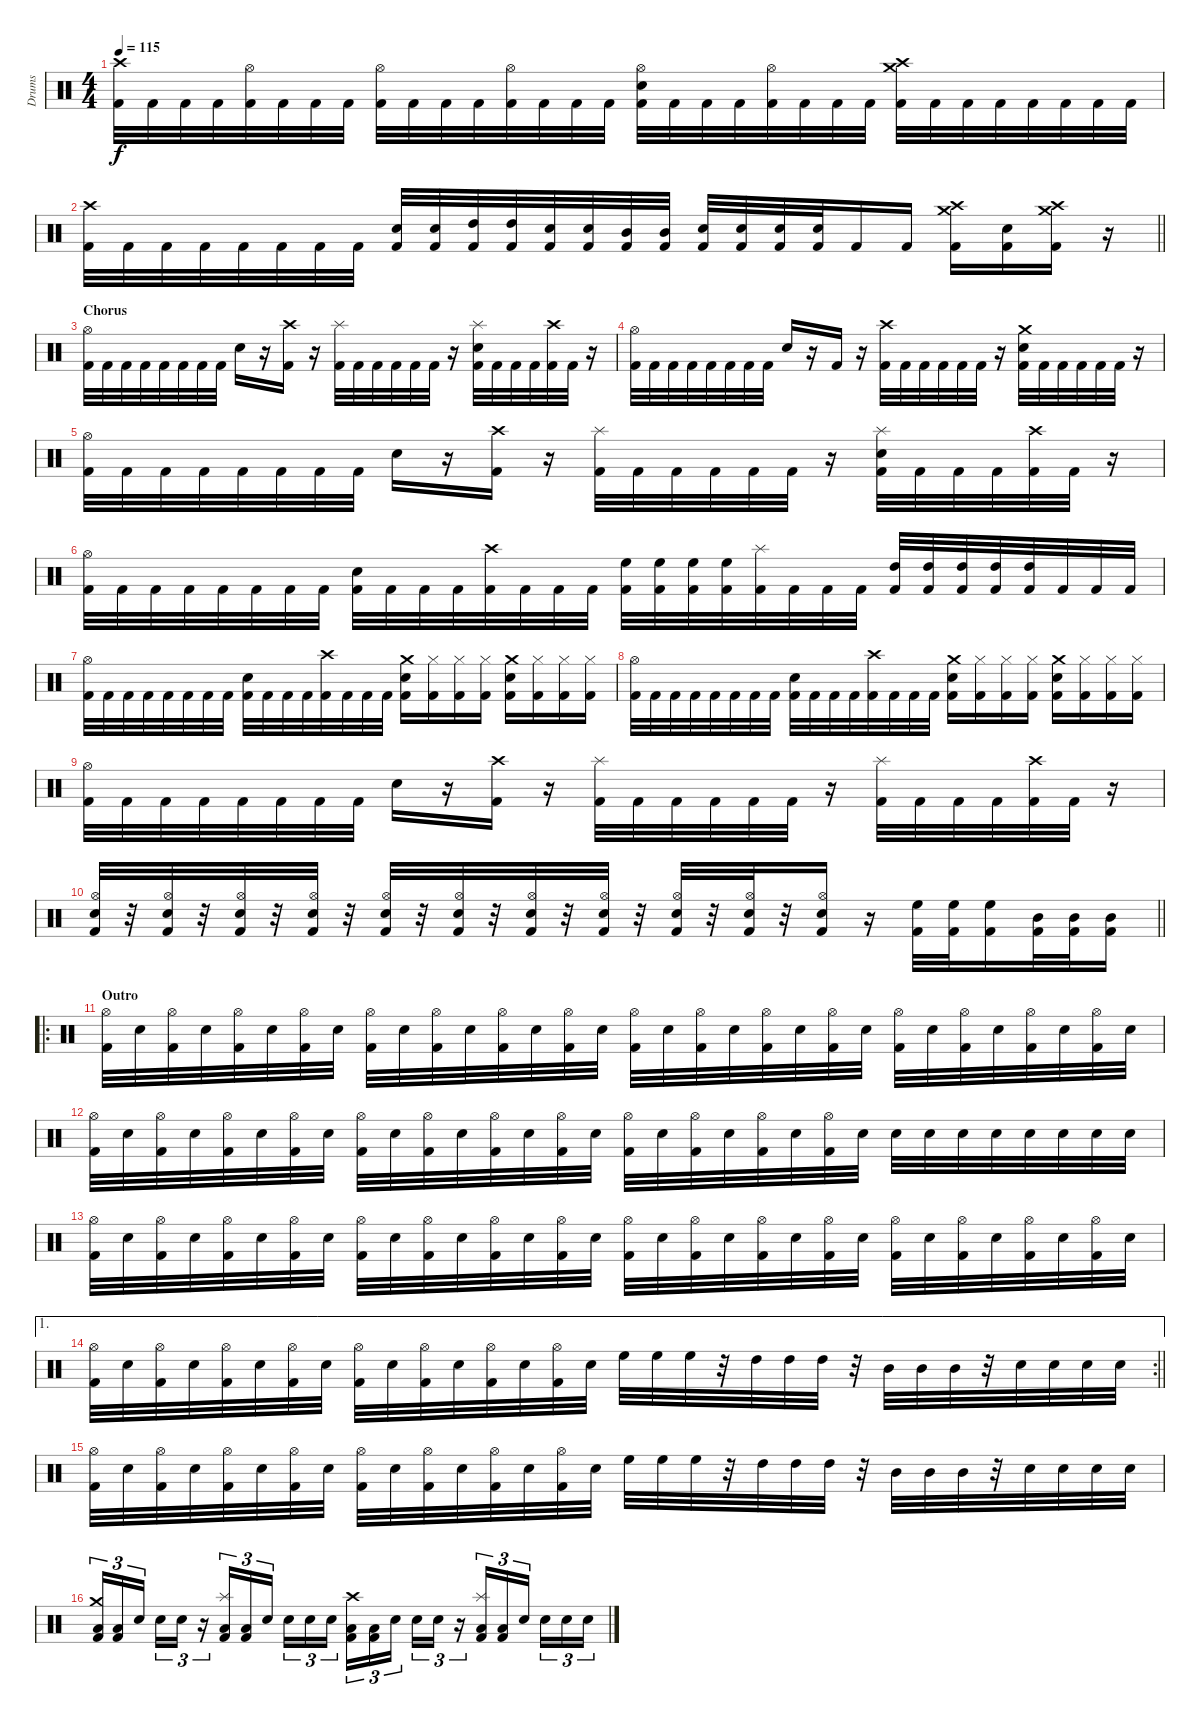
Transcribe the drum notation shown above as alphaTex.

\track ("Drums" "Drums") {instrument percussion}
\staff {score}
\articulation defaults
\ts (4 4)
\tempo 115
\clef neutral
\ks c
("Crash high (hit)" "Kick (hit) 2").32{dy f} "Kick (hit) 2".32 "Kick (hit) 2".32 "Kick (hit) 2".32 ("Hi-Hat (open)" "Kick (hit) 2").32 "Kick (hit) 2".32 "Kick (hit) 2".32 "Kick (hit) 2".32 ("Hi-Hat (open)" "Kick (hit) 2").32 "Kick (hit) 2".32 "Kick (hit) 2".32 "Kick (hit) 2".32 ("Hi-Hat (open)" "Kick (hit) 2").32 "Kick (hit) 2".32 "Kick (hit) 2".32 "Kick (hit) 2".32 ("Hi-Hat (open)" "Electric Snare (hit)" "Kick (hit) 2").32 "Kick (hit) 2".32 "Kick (hit) 2".32 "Kick (hit) 2".32 ("Hi-Hat (open)" "Kick (hit) 2").32 "Kick (hit) 2".32 "Kick (hit) 2".32 "Kick (hit) 2".32 ("Crash medium (hit)" "Crash high (hit)" "Kick (hit) 2").32 "Kick (hit) 2".32 "Kick (hit) 2".32 "Kick (hit) 2".32 "Kick (hit) 2".32 "Kick (hit) 2".32 "Kick (hit) 2".32 "Kick (hit) 2".32 |
\barLineRight lightlight
("Crash high (hit)" "Kick (hit) 2").32 "Kick (hit) 2".32 "Kick (hit) 2".32 "Kick (hit) 2".32 "Kick (hit) 2".32 "Kick (hit) 2".32 "Kick (hit) 2".32 "Kick (hit) 2".32 ("Electric Snare (hit)" "Kick (hit) 2").32 ("Electric Snare (hit)" "Kick (hit) 2").32 ("High Tom (hit)" "Kick (hit) 2").32 ("High Tom (hit)" "Kick (hit) 2").32 ("Electric Snare (hit)" "Kick (hit) 2").32 ("Electric Snare (hit)" "Kick (hit) 2").32 ("Mid Tom (hit)" "Kick (hit) 2").32 ("Mid Tom (hit)" "Kick (hit) 2").32 ("Electric Snare (hit)" "Kick (hit) 2").32 ("Electric Snare (hit)" "Kick (hit) 2").32 ("Electric Snare (hit)" "Kick (hit) 2").32 ("Electric Snare (hit)" "Kick (hit) 2").32 "Kick (hit) 2".16 "Kick (hit) 2".16 ("Crash medium (hit)" "Crash high (hit)" "Kick (hit) 2").16 ("Electric Snare (hit)" "Kick (hit) 2").16 ("Crash medium (hit)" "Crash high (hit)" "Kick (hit) 2").16 r.16 |
\section ("" "Chorus")
("Hi-Hat (open)" "Kick (hit) 2").32 "Kick (hit) 2".32 "Kick (hit) 2".32 "Kick (hit) 2".32 "Kick (hit) 2".32 "Kick (hit) 2".32 "Kick (hit) 2".32 "Kick (hit) 2".32 "Electric Snare (hit)".16 r.16 ("Crash high (hit)" "Kick (hit) 2").16 r.16 ("Splash (hit)" "Kick (hit) 2").32 "Kick (hit) 2".32 "Kick (hit) 2".32 "Kick (hit) 2".32 "Kick (hit) 2".32 "Kick (hit) 2".32 r.16 ("Splash (hit)" "Electric Snare (hit)" "Kick (hit) 2").32 "Kick (hit) 2".32 "Kick (hit) 2".32 "Kick (hit) 2".32 ("Crash high (hit)" "Kick (hit) 2").32 "Kick (hit) 2".32 r.16 |
("Hi-Hat (open)" "Kick (hit) 2").32 "Kick (hit) 2".32 "Kick (hit) 2".32 "Kick (hit) 2".32 "Kick (hit) 2".32 "Kick (hit) 2".32 "Kick (hit) 2".32 "Kick (hit) 2".32 "Electric Snare (hit)".16 r.16 "Kick (hit) 2".16 r.16 ("Crash high (hit)" "Kick (hit) 2").32 "Kick (hit) 2".32 "Kick (hit) 2".32 "Kick (hit) 2".32 "Kick (hit) 2".32 "Kick (hit) 2".32 r.16 ("Crash medium (hit)" "Electric Snare (hit)" "Kick (hit) 2").32 "Kick (hit) 2".32 "Kick (hit) 2".32 "Kick (hit) 2".32 "Kick (hit) 2".32 "Kick (hit) 2".32 r.16 |
("Hi-Hat (open)" "Kick (hit) 2").32 "Kick (hit) 2".32 "Kick (hit) 2".32 "Kick (hit) 2".32 "Kick (hit) 2".32 "Kick (hit) 2".32 "Kick (hit) 2".32 "Kick (hit) 2".32 "Electric Snare (hit)".16 r.16 ("Crash high (hit)" "Kick (hit) 2").16 r.16 ("Splash (hit)" "Kick (hit) 2").32 "Kick (hit) 2".32 "Kick (hit) 2".32 "Kick (hit) 2".32 "Kick (hit) 2".32 "Kick (hit) 2".32 r.16 ("Splash (hit)" "Electric Snare (hit)" "Kick (hit) 2").32 "Kick (hit) 2".32 "Kick (hit) 2".32 "Kick (hit) 2".32 ("Crash high (hit)" "Kick (hit) 2").32 "Kick (hit) 2".32 r.16 |
("Hi-Hat (open)" "Kick (hit) 2").32 "Kick (hit) 2".32 "Kick (hit) 2".32 "Kick (hit) 2".32 "Kick (hit) 2".32 "Kick (hit) 2".32 "Kick (hit) 2".32 "Kick (hit) 2".32 ("Electric Snare (hit)" "Kick (hit) 2").32 "Kick (hit) 2".32 "Kick (hit) 2".32 "Kick (hit) 2".32 ("Crash high (hit)" "Kick (hit) 2").32 "Kick (hit) 2".32 "Kick (hit) 2".32 "Kick (hit) 2".32 ("High Floor Tom (hit)" "Kick (hit) 2").32 ("High Floor Tom (hit)" "Kick (hit) 2").32 ("High Floor Tom (hit)" "Kick (hit) 2").32 ("High Floor Tom (hit)" "Kick (hit) 2").32 ("Splash (hit)" "Kick (hit) 2").32 "Kick (hit) 2".32 "Kick (hit) 2".32 "Kick (hit) 2".32 ("High Tom (hit)" "Kick (hit) 2").32 ("High Tom (hit)" "Kick (hit) 2").32 ("High Tom (hit)" "Kick (hit) 2").32 ("High Tom (hit)" "Kick (hit) 2").32 ("High Tom (hit)" "Kick (hit) 2").32 "Kick (hit) 2".32 "Kick (hit) 2".32 "Kick (hit) 2".32 |
("Hi-Hat (open)" "Kick (hit) 2").32 "Kick (hit) 2".32 "Kick (hit) 2".32 "Kick (hit) 2".32 "Kick (hit) 2".32 "Kick (hit) 2".32 "Kick (hit) 2".32 "Kick (hit) 2".32 ("Electric Snare (hit)" "Kick (hit) 2").32 "Kick (hit) 2".32 "Kick (hit) 2".32 "Kick (hit) 2".32 ("Crash high (hit)" "Kick (hit) 2").32 "Kick (hit) 2".32 "Kick (hit) 2".32 "Kick (hit) 2".32 ("Crash medium (hit)" "Electric Snare (hit)" "Kick (hit) 2").16 ("Hi-Hat (closed)" "Kick (hit) 2").16 ("Hi-Hat (closed)" "Kick (hit) 2").16 ("Hi-Hat (closed)" "Kick (hit) 2").16 ("Crash medium (hit)" "Electric Snare (hit)" "Kick (hit) 2").16 ("Hi-Hat (closed)" "Kick (hit) 2").16 ("Hi-Hat (closed)" "Kick (hit) 2").16 ("Hi-Hat (closed)" "Kick (hit) 2").16 |
("Hi-Hat (open)" "Kick (hit) 2").32 "Kick (hit) 2".32 "Kick (hit) 2".32 "Kick (hit) 2".32 "Kick (hit) 2".32 "Kick (hit) 2".32 "Kick (hit) 2".32 "Kick (hit) 2".32 ("Electric Snare (hit)" "Kick (hit) 2").32 "Kick (hit) 2".32 "Kick (hit) 2".32 "Kick (hit) 2".32 ("Crash high (hit)" "Kick (hit) 2").32 "Kick (hit) 2".32 "Kick (hit) 2".32 "Kick (hit) 2".32 ("Crash medium (hit)" "Electric Snare (hit)" "Kick (hit) 2").16 ("Hi-Hat (closed)" "Kick (hit) 2").16 ("Hi-Hat (closed)" "Kick (hit) 2").16 ("Hi-Hat (closed)" "Kick (hit) 2").16 ("Crash medium (hit)" "Electric Snare (hit)" "Kick (hit) 2").16 ("Hi-Hat (closed)" "Kick (hit) 2").16 ("Hi-Hat (closed)" "Kick (hit) 2").16 ("Hi-Hat (closed)" "Kick (hit) 2").16 |
("Hi-Hat (open)" "Kick (hit) 2").32 "Kick (hit) 2".32 "Kick (hit) 2".32 "Kick (hit) 2".32 "Kick (hit) 2".32 "Kick (hit) 2".32 "Kick (hit) 2".32 "Kick (hit) 2".32 "Electric Snare (hit)".16 r.16 ("Crash high (hit)" "Kick (hit) 2").16 r.16 ("Splash (hit)" "Kick (hit) 2").32 "Kick (hit) 2".32 "Kick (hit) 2".32 "Kick (hit) 2".32 "Kick (hit) 2".32 "Kick (hit) 2".32 r.16 ("Splash (hit)" "Kick (hit) 2").32 "Kick (hit) 2".32 "Kick (hit) 2".32 "Kick (hit) 2".32 ("Crash high (hit)" "Kick (hit) 2").32 "Kick (hit) 2".32 r.16 |
\barLineRight lightlight
("Hi-Hat (open)" "Electric Snare (hit)" "Kick (hit) 2").32 r.32 ("Hi-Hat (open)" "Electric Snare (hit)" "Kick (hit) 2").32 r.32 ("Hi-Hat (open)" "Electric Snare (hit)" "Kick (hit) 2").32 r.32 ("Hi-Hat (open)" "Electric Snare (hit)" "Kick (hit) 2").32 r.32 ("Hi-Hat (open)" "Electric Snare (hit)" "Kick (hit) 2").32 r.32 ("Hi-Hat (open)" "Electric Snare (hit)" "Kick (hit) 2").32 r.32 ("Hi-Hat (open)" "Electric Snare (hit)" "Kick (hit) 2").32 r.32 ("Hi-Hat (open)" "Electric Snare (hit)" "Kick (hit) 2").32 r.32 ("Hi-Hat (open)" "Electric Snare (hit)" "Kick (hit) 2").32 r.32 ("Hi-Hat (open)" "Electric Snare (hit)" "Kick (hit) 2").32 r.32 ("Hi-Hat (open)" "Electric Snare (hit)" "Kick (hit) 2").16 r.16 ("High Floor Tom (hit)" "Kick (hit) 2").32 ("High Floor Tom (hit)" "Kick (hit) 2").32 ("High Floor Tom (hit)" "Kick (hit) 2").16 ("Mid Tom (hit)" "Kick (hit) 2").32 ("Mid Tom (hit)" "Kick (hit) 2").32 ("Mid Tom (hit)" "Kick (hit) 2").16 |
\ro
\section ("" "Outro")
("Hi-Hat (open)" "Kick (hit) 2").32 "Electric Snare (hit)".32 ("Hi-Hat (open)" "Kick (hit) 2").32 "Electric Snare (hit)".32 ("Hi-Hat (open)" "Kick (hit) 2").32 "Electric Snare (hit)".32 ("Hi-Hat (open)" "Kick (hit) 2").32 "Electric Snare (hit)".32 ("Hi-Hat (open)" "Kick (hit) 2").32 "Electric Snare (hit)".32 ("Hi-Hat (open)" "Kick (hit) 2").32 "Electric Snare (hit)".32 ("Hi-Hat (open)" "Kick (hit) 2").32 "Electric Snare (hit)".32 ("Hi-Hat (open)" "Kick (hit) 2").32 "Electric Snare (hit)".32 ("Hi-Hat (open)" "Kick (hit) 2").32 "Electric Snare (hit)".32 ("Hi-Hat (open)" "Kick (hit) 2").32 "Electric Snare (hit)".32 ("Hi-Hat (open)" "Kick (hit) 2").32 "Electric Snare (hit)".32 ("Hi-Hat (open)" "Kick (hit) 2").32 "Electric Snare (hit)".32 ("Hi-Hat (open)" "Kick (hit) 2").32 "Electric Snare (hit)".32 ("Hi-Hat (open)" "Kick (hit) 2").32 "Electric Snare (hit)".32 ("Hi-Hat (open)" "Kick (hit) 2").32 "Electric Snare (hit)".32 ("Hi-Hat (open)" "Kick (hit) 2").32 "Electric Snare (hit)".32 |
("Hi-Hat (open)" "Kick (hit) 2").32 "Electric Snare (hit)".32 ("Hi-Hat (open)" "Kick (hit) 2").32 "Electric Snare (hit)".32 ("Hi-Hat (open)" "Kick (hit) 2").32 "Electric Snare (hit)".32 ("Hi-Hat (open)" "Kick (hit) 2").32 "Electric Snare (hit)".32 ("Hi-Hat (open)" "Kick (hit) 2").32 "Electric Snare (hit)".32 ("Hi-Hat (open)" "Kick (hit) 2").32 "Electric Snare (hit)".32 ("Hi-Hat (open)" "Kick (hit) 2").32 "Electric Snare (hit)".32 ("Hi-Hat (open)" "Kick (hit) 2").32 "Electric Snare (hit)".32 ("Hi-Hat (open)" "Kick (hit) 2").32 "Electric Snare (hit)".32 ("Hi-Hat (open)" "Kick (hit) 2").32 "Electric Snare (hit)".32 ("Hi-Hat (open)" "Kick (hit) 2").32 "Electric Snare (hit)".32 ("Hi-Hat (open)" "Kick (hit) 2").32 "Electric Snare (hit)".32 "Electric Snare (hit)".32 "Electric Snare (hit)".32 "Electric Snare (hit)".32 "Electric Snare (hit)".32 "Electric Snare (hit)".32 "Electric Snare (hit)".32 "Electric Snare (hit)".32 "Electric Snare (hit)".32 |
("Hi-Hat (open)" "Kick (hit) 2").32 "Electric Snare (hit)".32 ("Hi-Hat (open)" "Kick (hit) 2").32 "Electric Snare (hit)".32 ("Hi-Hat (open)" "Kick (hit) 2").32 "Electric Snare (hit)".32 ("Hi-Hat (open)" "Kick (hit) 2").32 "Electric Snare (hit)".32 ("Hi-Hat (open)" "Kick (hit) 2").32 "Electric Snare (hit)".32 ("Hi-Hat (open)" "Kick (hit) 2").32 "Electric Snare (hit)".32 ("Hi-Hat (open)" "Kick (hit) 2").32 "Electric Snare (hit)".32 ("Hi-Hat (open)" "Kick (hit) 2").32 "Electric Snare (hit)".32 ("Hi-Hat (open)" "Kick (hit) 2").32 "Electric Snare (hit)".32 ("Hi-Hat (open)" "Kick (hit) 2").32 "Electric Snare (hit)".32 ("Hi-Hat (open)" "Kick (hit) 2").32 "Electric Snare (hit)".32 ("Hi-Hat (open)" "Kick (hit) 2").32 "Electric Snare (hit)".32 ("Hi-Hat (open)" "Kick (hit) 2").32 "Electric Snare (hit)".32 ("Hi-Hat (open)" "Kick (hit) 2").32 "Electric Snare (hit)".32 ("Hi-Hat (open)" "Kick (hit) 2").32 "Electric Snare (hit)".32 ("Hi-Hat (open)" "Kick (hit) 2").32 "Electric Snare (hit)".32 |
\ae 1
\rc 2
\barLineRight lightlight
("Hi-Hat (open)" "Kick (hit) 2").32 "Electric Snare (hit)".32 ("Hi-Hat (open)" "Kick (hit) 2").32 "Electric Snare (hit)".32 ("Hi-Hat (open)" "Kick (hit) 2").32 "Electric Snare (hit)".32 ("Hi-Hat (open)" "Kick (hit) 2").32 "Electric Snare (hit)".32 ("Hi-Hat (open)" "Kick (hit) 2").32 "Electric Snare (hit)".32 ("Hi-Hat (open)" "Kick (hit) 2").32 "Electric Snare (hit)".32 ("Hi-Hat (open)" "Kick (hit) 2").32 "Electric Snare (hit)".32 ("Hi-Hat (open)" "Kick (hit) 2").32 "Electric Snare (hit)".32 "High Floor Tom (hit)".32 "High Floor Tom (hit)".32 "High Floor Tom (hit)".32 r.32 "High Tom (hit)".32 "High Tom (hit)".32 "High Tom (hit)".32 r.32 "Mid Tom (hit)".32 "Mid Tom (hit)".32 "Mid Tom (hit)".32 r.32 "Electric Snare (hit)".32 "Electric Snare (hit)".32 "Electric Snare (hit)".32 "Electric Snare (hit)".32 |
("Hi-Hat (open)" "Kick (hit) 2").32 "Electric Snare (hit)".32 ("Hi-Hat (open)" "Kick (hit) 2").32 "Electric Snare (hit)".32 ("Hi-Hat (open)" "Kick (hit) 2").32 "Electric Snare (hit)".32 ("Hi-Hat (open)" "Kick (hit) 2").32 "Electric Snare (hit)".32 ("Hi-Hat (open)" "Kick (hit) 2").32 "Electric Snare (hit)".32 ("Hi-Hat (open)" "Kick (hit) 2").32 "Electric Snare (hit)".32 ("Hi-Hat (open)" "Kick (hit) 2").32 "Electric Snare (hit)".32 ("Hi-Hat (open)" "Kick (hit) 2").32 "Electric Snare (hit)".32 "High Floor Tom (hit)".32 "High Floor Tom (hit)".32 "High Floor Tom (hit)".32 r.32 "High Tom (hit)".32 "High Tom (hit)".32 "High Tom (hit)".32 r.32 "Mid Tom (hit)".32 "Mid Tom (hit)".32 "Mid Tom (hit)".32 r.32 "Electric Snare (hit)".32 "Electric Snare (hit)".32 "Electric Snare (hit)".32 "Electric Snare (hit)".32 |
("Crash medium (hit)" "Low Floor Tom (hit)" "Kick (hit) 2").16{tu (3 2)} ("Low Floor Tom (hit)" "Kick (hit) 2").16{tu (3 2)} "Electric Snare (hit)".16{tu (3 2) beam splitsecondary} "Electric Snare (hit)".16{tu (3 2)} "Electric Snare (hit)".16{tu (3 2)} r.16{tu (3 2)} ("Splash (hit)" "Low Floor Tom (hit)" "Kick (hit) 2").16{tu (3 2)} ("Low Floor Tom (hit)" "Kick (hit) 2").16{tu (3 2)} "Electric Snare (hit)".16{tu (3 2) beam splitsecondary} "Electric Snare (hit)".16{tu (3 2)} "Electric Snare (hit)".16{tu (3 2)} "Electric Snare (hit)".16{tu (3 2)} ("Crash high (hit)" "Low Floor Tom (hit)" "Kick (hit) 2").16{tu (3 2)} ("Low Floor Tom (hit)" "Kick (hit) 2").16{tu (3 2)} "Electric Snare (hit)".16{tu (3 2) beam splitsecondary} "Electric Snare (hit)".16{tu (3 2)} "Electric Snare (hit)".16{tu (3 2)} r.16{tu (3 2)} ("Splash (hit)" "Low Floor Tom (hit)" "Kick (hit) 2").16{tu (3 2)} ("Low Floor Tom (hit)" "Kick (hit) 2").16{tu (3 2)} "Electric Snare (hit)".16{tu (3 2) beam splitsecondary} "Electric Snare (hit)".16{tu (3 2)} "Electric Snare (hit)".16{tu (3 2)} "Electric Snare (hit)".16{tu (3 2)}
